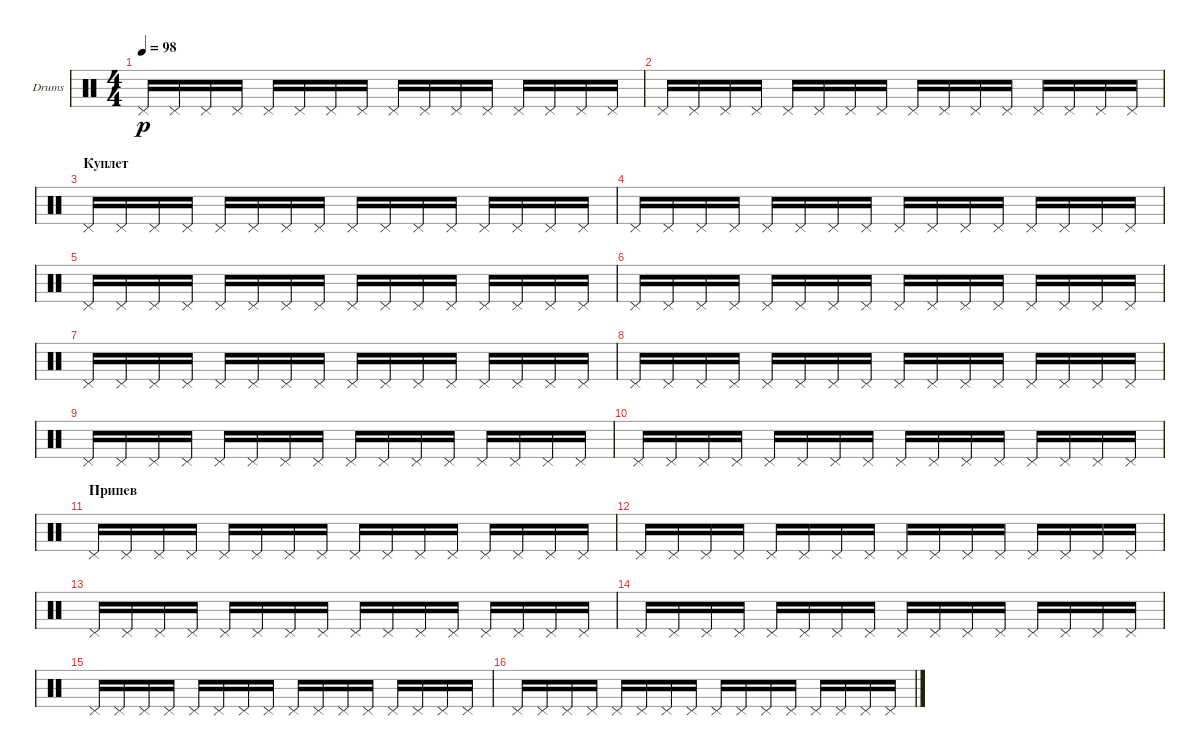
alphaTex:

\defaultSystemsLayout 4
\bracketExtendMode groupsimilarinstruments
\firstSystemTrackNameOrientation horizontal
\otherSystemsTrackNameOrientation horizontal
\track ("Е. Кулаков" "Drums") {instrument percussion}
\staff {score}
\articulation defaults
\ts (4 4)
\tempo 98
\clef neutral
\ks c "Pedal Hi-Hat (hit)".16{dy p} "Pedal Hi-Hat (hit)".16 "Pedal Hi-Hat (hit)".16 "Pedal Hi-Hat (hit)".16 "Pedal Hi-Hat (hit)".16 "Pedal Hi-Hat (hit)".16 "Pedal Hi-Hat (hit)".16 "Pedal Hi-Hat (hit)".16 "Pedal Hi-Hat (hit)".16 "Pedal Hi-Hat (hit)".16 "Pedal Hi-Hat (hit)".16 "Pedal Hi-Hat (hit)".16 "Pedal Hi-Hat (hit)".16 "Pedal Hi-Hat (hit)".16 "Pedal Hi-Hat (hit)".16 "Pedal Hi-Hat (hit)".16
|
"Pedal Hi-Hat (hit)".16 "Pedal Hi-Hat (hit)".16 "Pedal Hi-Hat (hit)".16 "Pedal Hi-Hat (hit)".16 "Pedal Hi-Hat (hit)".16 "Pedal Hi-Hat (hit)".16 "Pedal Hi-Hat (hit)".16 "Pedal Hi-Hat (hit)".16 "Pedal Hi-Hat (hit)".16 "Pedal Hi-Hat (hit)".16 "Pedal Hi-Hat (hit)".16 "Pedal Hi-Hat (hit)".16 "Pedal Hi-Hat (hit)".16 "Pedal Hi-Hat (hit)".16 "Pedal Hi-Hat (hit)".16 "Pedal Hi-Hat (hit)".16 |
\section ("" "Куплет")
"Pedal Hi-Hat (hit)".16 "Pedal Hi-Hat (hit)".16 "Pedal Hi-Hat (hit)".16 "Pedal Hi-Hat (hit)".16 "Pedal Hi-Hat (hit)".16 "Pedal Hi-Hat (hit)".16 "Pedal Hi-Hat (hit)".16 "Pedal Hi-Hat (hit)".16 "Pedal Hi-Hat (hit)".16 "Pedal Hi-Hat (hit)".16 "Pedal Hi-Hat (hit)".16 "Pedal Hi-Hat (hit)".16 "Pedal Hi-Hat (hit)".16 "Pedal Hi-Hat (hit)".16 "Pedal Hi-Hat (hit)".16 "Pedal Hi-Hat (hit)".16 |
"Pedal Hi-Hat (hit)".16 "Pedal Hi-Hat (hit)".16 "Pedal Hi-Hat (hit)".16 "Pedal Hi-Hat (hit)".16 "Pedal Hi-Hat (hit)".16 "Pedal Hi-Hat (hit)".16 "Pedal Hi-Hat (hit)".16 "Pedal Hi-Hat (hit)".16 "Pedal Hi-Hat (hit)".16 "Pedal Hi-Hat (hit)".16 "Pedal Hi-Hat (hit)".16 "Pedal Hi-Hat (hit)".16 "Pedal Hi-Hat (hit)".16 "Pedal Hi-Hat (hit)".16 "Pedal Hi-Hat (hit)".16 "Pedal Hi-Hat (hit)".16 |
"Pedal Hi-Hat (hit)".16 "Pedal Hi-Hat (hit)".16 "Pedal Hi-Hat (hit)".16 "Pedal Hi-Hat (hit)".16 "Pedal Hi-Hat (hit)".16 "Pedal Hi-Hat (hit)".16 "Pedal Hi-Hat (hit)".16 "Pedal Hi-Hat (hit)".16 "Pedal Hi-Hat (hit)".16 "Pedal Hi-Hat (hit)".16 "Pedal Hi-Hat (hit)".16 "Pedal Hi-Hat (hit)".16 "Pedal Hi-Hat (hit)".16 "Pedal Hi-Hat (hit)".16 "Pedal Hi-Hat (hit)".16 "Pedal Hi-Hat (hit)".16 |
"Pedal Hi-Hat (hit)".16 "Pedal Hi-Hat (hit)".16 "Pedal Hi-Hat (hit)".16 "Pedal Hi-Hat (hit)".16 "Pedal Hi-Hat (hit)".16 "Pedal Hi-Hat (hit)".16 "Pedal Hi-Hat (hit)".16 "Pedal Hi-Hat (hit)".16 "Pedal Hi-Hat (hit)".16 "Pedal Hi-Hat (hit)".16 "Pedal Hi-Hat (hit)".16 "Pedal Hi-Hat (hit)".16 "Pedal Hi-Hat (hit)".16 "Pedal Hi-Hat (hit)".16 "Pedal Hi-Hat (hit)".16 "Pedal Hi-Hat (hit)".16 |
"Pedal Hi-Hat (hit)".16 "Pedal Hi-Hat (hit)".16 "Pedal Hi-Hat (hit)".16 "Pedal Hi-Hat (hit)".16 "Pedal Hi-Hat (hit)".16 "Pedal Hi-Hat (hit)".16 "Pedal Hi-Hat (hit)".16 "Pedal Hi-Hat (hit)".16 "Pedal Hi-Hat (hit)".16 "Pedal Hi-Hat (hit)".16 "Pedal Hi-Hat (hit)".16 "Pedal Hi-Hat (hit)".16 "Pedal Hi-Hat (hit)".16 "Pedal Hi-Hat (hit)".16 "Pedal Hi-Hat (hit)".16 "Pedal Hi-Hat (hit)".16 |
"Pedal Hi-Hat (hit)".16 "Pedal Hi-Hat (hit)".16 "Pedal Hi-Hat (hit)".16 "Pedal Hi-Hat (hit)".16 "Pedal Hi-Hat (hit)".16 "Pedal Hi-Hat (hit)".16 "Pedal Hi-Hat (hit)".16 "Pedal Hi-Hat (hit)".16 "Pedal Hi-Hat (hit)".16 "Pedal Hi-Hat (hit)".16 "Pedal Hi-Hat (hit)".16 "Pedal Hi-Hat (hit)".16 "Pedal Hi-Hat (hit)".16 "Pedal Hi-Hat (hit)".16 "Pedal Hi-Hat (hit)".16 "Pedal Hi-Hat (hit)".16 |
"Pedal Hi-Hat (hit)".16 "Pedal Hi-Hat (hit)".16 "Pedal Hi-Hat (hit)".16 "Pedal Hi-Hat (hit)".16 "Pedal Hi-Hat (hit)".16 "Pedal Hi-Hat (hit)".16 "Pedal Hi-Hat (hit)".16 "Pedal Hi-Hat (hit)".16 "Pedal Hi-Hat (hit)".16 "Pedal Hi-Hat (hit)".16 "Pedal Hi-Hat (hit)".16 "Pedal Hi-Hat (hit)".16 "Pedal Hi-Hat (hit)".16 "Pedal Hi-Hat (hit)".16 "Pedal Hi-Hat (hit)".16 "Pedal Hi-Hat (hit)".16 |
"Pedal Hi-Hat (hit)".16 "Pedal Hi-Hat (hit)".16 "Pedal Hi-Hat (hit)".16 "Pedal Hi-Hat (hit)".16 "Pedal Hi-Hat (hit)".16 "Pedal Hi-Hat (hit)".16 "Pedal Hi-Hat (hit)".16 "Pedal Hi-Hat (hit)".16 "Pedal Hi-Hat (hit)".16 "Pedal Hi-Hat (hit)".16 "Pedal Hi-Hat (hit)".16 "Pedal Hi-Hat (hit)".16 "Pedal Hi-Hat (hit)".16 "Pedal Hi-Hat (hit)".16 "Pedal Hi-Hat (hit)".16 "Pedal Hi-Hat (hit)".16 |
\section ("" "Припев")
"Pedal Hi-Hat (hit)".16 "Pedal Hi-Hat (hit)".16 "Pedal Hi-Hat (hit)".16 "Pedal Hi-Hat (hit)".16 "Pedal Hi-Hat (hit)".16 "Pedal Hi-Hat (hit)".16 "Pedal Hi-Hat (hit)".16 "Pedal Hi-Hat (hit)".16 "Pedal Hi-Hat (hit)".16 "Pedal Hi-Hat (hit)".16 "Pedal Hi-Hat (hit)".16 "Pedal Hi-Hat (hit)".16 "Pedal Hi-Hat (hit)".16 "Pedal Hi-Hat (hit)".16 "Pedal Hi-Hat (hit)".16 "Pedal Hi-Hat (hit)".16 |
"Pedal Hi-Hat (hit)".16 "Pedal Hi-Hat (hit)".16 "Pedal Hi-Hat (hit)".16 "Pedal Hi-Hat (hit)".16 "Pedal Hi-Hat (hit)".16 "Pedal Hi-Hat (hit)".16 "Pedal Hi-Hat (hit)".16 "Pedal Hi-Hat (hit)".16 "Pedal Hi-Hat (hit)".16 "Pedal Hi-Hat (hit)".16 "Pedal Hi-Hat (hit)".16 "Pedal Hi-Hat (hit)".16 "Pedal Hi-Hat (hit)".16 "Pedal Hi-Hat (hit)".16 "Pedal Hi-Hat (hit)".16 "Pedal Hi-Hat (hit)".16 |
"Pedal Hi-Hat (hit)".16 "Pedal Hi-Hat (hit)".16 "Pedal Hi-Hat (hit)".16 "Pedal Hi-Hat (hit)".16 "Pedal Hi-Hat (hit)".16 "Pedal Hi-Hat (hit)".16 "Pedal Hi-Hat (hit)".16 "Pedal Hi-Hat (hit)".16 "Pedal Hi-Hat (hit)".16 "Pedal Hi-Hat (hit)".16 "Pedal Hi-Hat (hit)".16 "Pedal Hi-Hat (hit)".16 "Pedal Hi-Hat (hit)".16 "Pedal Hi-Hat (hit)".16 "Pedal Hi-Hat (hit)".16 "Pedal Hi-Hat (hit)".16 |
"Pedal Hi-Hat (hit)".16 "Pedal Hi-Hat (hit)".16 "Pedal Hi-Hat (hit)".16 "Pedal Hi-Hat (hit)".16 "Pedal Hi-Hat (hit)".16 "Pedal Hi-Hat (hit)".16 "Pedal Hi-Hat (hit)".16 "Pedal Hi-Hat (hit)".16 "Pedal Hi-Hat (hit)".16 "Pedal Hi-Hat (hit)".16 "Pedal Hi-Hat (hit)".16 "Pedal Hi-Hat (hit)".16 "Pedal Hi-Hat (hit)".16 "Pedal Hi-Hat (hit)".16 "Pedal Hi-Hat (hit)".16 "Pedal Hi-Hat (hit)".16 |
"Pedal Hi-Hat (hit)".16 "Pedal Hi-Hat (hit)".16 "Pedal Hi-Hat (hit)".16 "Pedal Hi-Hat (hit)".16 "Pedal Hi-Hat (hit)".16 "Pedal Hi-Hat (hit)".16 "Pedal Hi-Hat (hit)".16 "Pedal Hi-Hat (hit)".16 "Pedal Hi-Hat (hit)".16 "Pedal Hi-Hat (hit)".16 "Pedal Hi-Hat (hit)".16 "Pedal Hi-Hat (hit)".16 "Pedal Hi-Hat (hit)".16 "Pedal Hi-Hat (hit)".16 "Pedal Hi-Hat (hit)".16 "Pedal Hi-Hat (hit)".16 |
"Pedal Hi-Hat (hit)".16 "Pedal Hi-Hat (hit)".16 "Pedal Hi-Hat (hit)".16 "Pedal Hi-Hat (hit)".16 "Pedal Hi-Hat (hit)".16 "Pedal Hi-Hat (hit)".16 "Pedal Hi-Hat (hit)".16 "Pedal Hi-Hat (hit)".16 "Pedal Hi-Hat (hit)".16 "Pedal Hi-Hat (hit)".16 "Pedal Hi-Hat (hit)".16 "Pedal Hi-Hat (hit)".16 "Pedal Hi-Hat (hit)".16 "Pedal Hi-Hat (hit)".16 "Pedal Hi-Hat (hit)".16 "Pedal Hi-Hat (hit)".16
